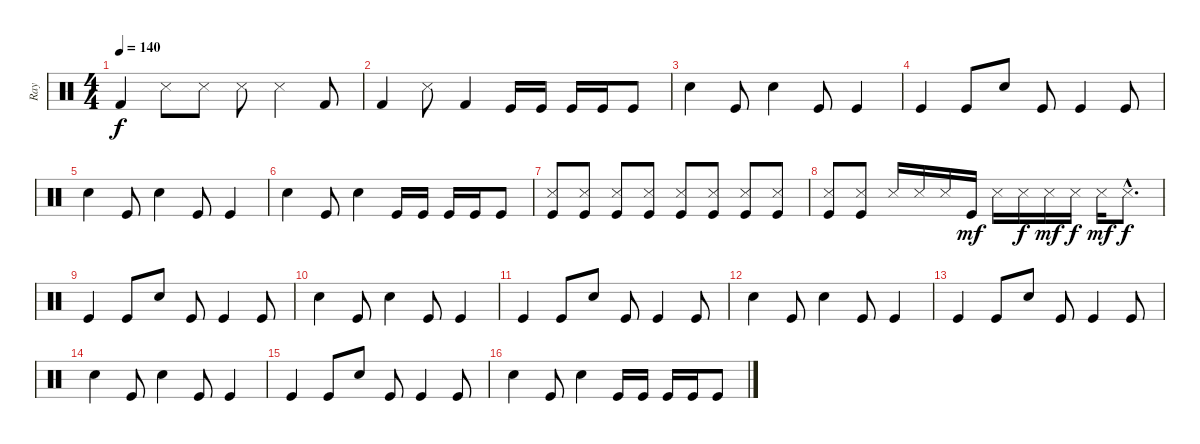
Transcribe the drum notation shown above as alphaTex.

\track ("Ray" "Ray") {instrument percussion}
\staff {score}
\articulation defaults
\ts (4 4)
\tempo 140
\clef neutral
\ks c "Kick (hit) 2".4{dy f} "Snare (side stick) 3".8 "Snare (side stick) 3".8 "Snare (side stick) 3".8 "Snare (side stick) 3".4 "Kick (hit) 2".8
|
"Kick (hit) 2".4 "Snare (side stick) 3".8 "Kick (hit) 2".4 "Kick (hit)".16 "Kick (hit)".16 "Kick (hit)".16 "Kick (hit)".16 "Kick (hit)".8 |
"Snare (hit) 2".4 "Kick (hit)".8 "Snare (hit) 2".4 "Kick (hit)".8 "Kick (hit)".4 |
"Kick (hit)".4 "Kick (hit)".8 "Snare (hit) 2".8 "Kick (hit)".8 "Kick (hit)".4 "Kick (hit)".8 |
"Snare (hit) 2".4 "Kick (hit)".8 "Snare (hit) 2".4 "Kick (hit)".8 "Kick (hit)".4 |
"Snare (hit) 2".4 "Kick (hit)".8 "Snare (hit) 2".4 "Kick (hit)".16 "Kick (hit)".16 "Kick (hit)".16 "Kick (hit)".16 "Kick (hit)".8 |
("Kick (hit)" "Snare (side stick) 3").8 ("Kick (hit)" "Snare (side stick) 3").8 ("Kick (hit)" "Snare (side stick) 3").8 ("Kick (hit)" "Snare (side stick) 3").8 ("Kick (hit)" "Snare (side stick) 3").8 ("Kick (hit)" "Snare (side stick) 3").8 ("Kick (hit)" "Snare (side stick) 3").8 ("Kick (hit)" "Snare (side stick) 3").8 |
("Kick (hit)" "Snare (side stick) 3").8 ("Kick (hit)" "Snare (side stick) 3").8 "Snare (side stick) 3".16 "Snare (side stick) 3".16 "Snare (side stick) 3".16 "Kick (hit)".16{dy mf} "Snare (side stick) 3".16 "Snare (side stick) 3".16{dy f} "Snare (side stick) 3".16{dy mf} "Snare (side stick) 3".16{dy f} "Snare (side stick) 3".16{dy mf} "Snare (side stick) 3"{hac}.8{d dy f} |
"Kick (hit)".4 "Kick (hit)".8 "Snare (hit) 2".8 "Kick (hit)".8 "Kick (hit)".4 "Kick (hit)".8 |
"Snare (hit) 2".4 "Kick (hit)".8 "Snare (hit) 2".4 "Kick (hit)".8 "Kick (hit)".4 |
"Kick (hit)".4 "Kick (hit)".8 "Snare (hit) 2".8 "Kick (hit)".8 "Kick (hit)".4 "Kick (hit)".8 |
"Snare (hit) 2".4 "Kick (hit)".8 "Snare (hit) 2".4 "Kick (hit)".8 "Kick (hit)".4 |
"Kick (hit)".4 "Kick (hit)".8 "Snare (hit) 2".8 "Kick (hit)".8 "Kick (hit)".4 "Kick (hit)".8 |
"Snare (hit) 2".4 "Kick (hit)".8 "Snare (hit) 2".4 "Kick (hit)".8 "Kick (hit)".4 |
"Kick (hit)".4 "Kick (hit)".8 "Snare (hit) 2".8 "Kick (hit)".8 "Kick (hit)".4 "Kick (hit)".8 |
"Snare (hit) 2".4 "Kick (hit)".8 "Snare (hit) 2".4 "Kick (hit)".16 "Kick (hit)".16 "Kick (hit)".16 "Kick (hit)".16 "Kick (hit)".8
